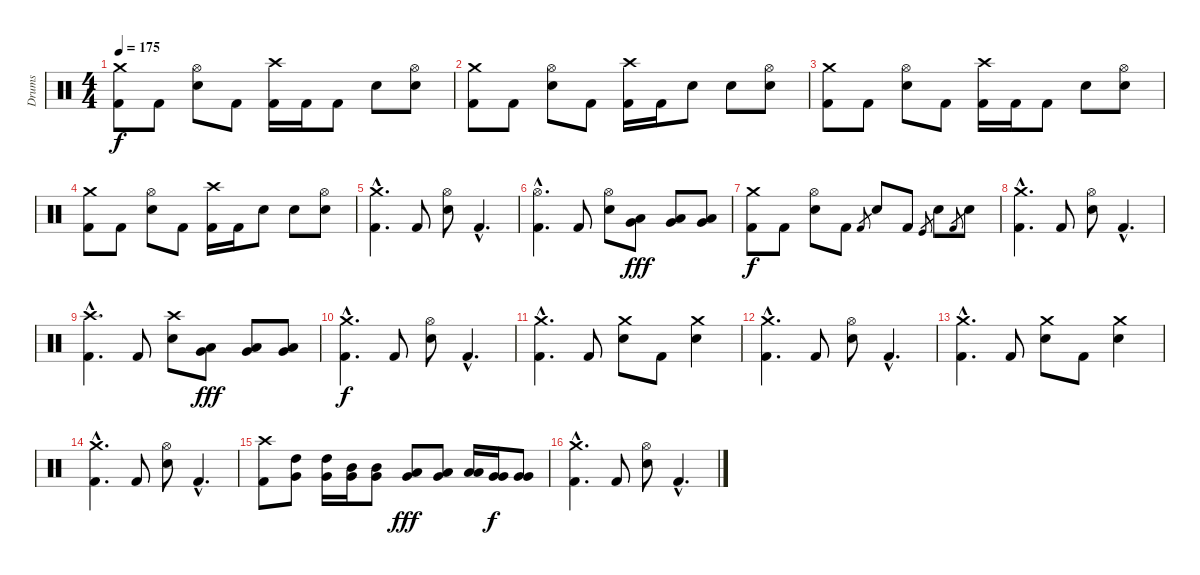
\track ("Drums" "Drums") {instrument percussion}
\staff {score}
\articulation defaults
\ts (4 4)
\tempo 175
\clef neutral
\ks c
("Kick (hit) 2" "Crash medium (hit)").8{dy f} "Kick (hit) 2".8 ("Electric Snare (hit)" "Hi-Hat (open)").8 "Kick (hit) 2".8 ("Kick (hit) 2" "Crash high (hit)").16 "Kick (hit) 2".16 "Kick (hit) 2".8 "Electric Snare (hit)".8 ("Electric Snare (hit)" "Hi-Hat (open)").8 |
("Kick (hit) 2" "Crash medium (hit)").8 "Kick (hit) 2".8 ("Electric Snare (hit)" "Hi-Hat (open)").8 "Kick (hit) 2".8 ("Kick (hit) 2" "Crash high (hit)").16 "Kick (hit) 2".16 "Electric Snare (hit)".8 "Snare (hit) 2".8 ("Snare (hit) 2" "Hi-Hat (open)").8 |
("Kick (hit) 2" "Crash medium (hit)").8 "Kick (hit) 2".8 ("Electric Snare (hit)" "Hi-Hat (open)").8 "Kick (hit) 2".8 ("Kick (hit) 2" "Crash high (hit)").16 "Kick (hit) 2".16 "Kick (hit) 2".8 "Electric Snare (hit)".8 ("Electric Snare (hit)" "Hi-Hat (open)").8 |
("Kick (hit) 2" "Crash medium (hit)").8 "Kick (hit) 2".8 ("Electric Snare (hit)" "Hi-Hat (open)").8 "Kick (hit) 2".8 ("Kick (hit) 2" "Crash high (hit)").16 "Kick (hit) 2".16 "Electric Snare (hit)".8 "Snare (hit) 2".8 ("Snare (hit) 2" "Hi-Hat (open)").8 |
("Kick (hit) 2"{hac} "Crash medium (hit)"{hac}).4{d} "Kick (hit) 2".8 ("Electric Snare (hit)" "Hi-Hat (open)").8 "Kick (hit) 2"{hac}.4{d} |
("Kick (hit) 2"{hac} "Hi-Hat (open)"{hac}).4{d} "Kick (hit) 2".8 ("Electric Snare (hit)" "Hi-Hat (open)").8 ("Low Tom (hit)" "Very Low Tom (hit)").8{dy fff} ("Low Tom (hit)" "Very Low Tom (hit)").8 ("Low Tom (hit)" "Very Low Tom (hit)").8 |
("Kick (hit) 2" "Crash medium (hit)").8{dy f} "Kick (hit) 2".8 ("Electric Snare (hit)" "Hi-Hat (open)").8 "Kick (hit) 2".8 "Kick (hit) 2".8{gr} "Electric Snare (hit)".8 "Kick (hit) 2".8 "Kick (hit)".8{gr} "Snare (hit) 2".8 "Kick (hit) 2".8{gr} "Electric Snare (hit)".8 |
("Kick (hit) 2"{hac} "Crash medium (hit)"{hac}).4{d} "Kick (hit) 2".8 ("Electric Snare (hit)" "Hi-Hat (open)").8 "Kick (hit) 2"{hac}.4{d} |
("Kick (hit) 2"{hac} "Crash high (hit)"{hac}).4{d} "Kick (hit) 2".8 ("Electric Snare (hit)" "Crash high (hit)").8 ("Low Tom (hit)" "Very Low Tom (hit)").8{dy fff} ("Low Tom (hit)" "Very Low Tom (hit)").8 ("Low Tom (hit)" "Very Low Tom (hit)").8 |
("Kick (hit) 2"{hac} "Crash medium (hit)"{hac}).4{d dy f} "Kick (hit) 2".8 ("Electric Snare (hit)" "Hi-Hat (open)").8 "Kick (hit) 2"{hac}.4{d} |
("Kick (hit) 2"{hac} "Crash medium (hit)"{hac}).4{d} "Kick (hit) 2".8 ("Electric Snare (hit)" "Crash medium (hit)").8 "Kick (hit) 2".8 ("Electric Snare (hit)" "Crash medium (hit)").4 |
("Kick (hit) 2"{hac} "Crash medium (hit)"{hac}).4{d} "Kick (hit) 2".8 ("Electric Snare (hit)" "Hi-Hat (open)").8 "Kick (hit) 2"{hac}.4{d} |
("Kick (hit) 2"{hac} "Crash medium (hit)"{hac}).4{d} "Kick (hit) 2".8 ("Electric Snare (hit)" "Crash medium (hit)").8 "Kick (hit) 2".8 ("Electric Snare (hit)" "Crash medium (hit)").4 |
("Kick (hit) 2"{hac} "Crash medium (hit)"{hac}).4{d} "Kick (hit) 2".8 ("Electric Snare (hit)" "Hi-Hat (open)").8 "Kick (hit) 2"{hac}.4{d} |
("Kick (hit) 2" "Crash high (hit)").8 ("High Tom (hit)" "Very Low Tom (hit)").8 ("High Tom (hit)" "Very Low Tom (hit)").16 ("Mid Tom (hit)" "Very Low Tom (hit)").16 ("Mid Tom (hit)" "Very Low Tom (hit)").8 ("Low Tom (hit)" "Very Low Tom (hit)").8{dy fff} ("Low Tom (hit)" "Very Low Tom (hit)").8 ("Low Tom (hit)" "Low Tom (hit)").16 ("Very Low Tom (hit)" "Very Low Tom (hit)").16{dy f} ("Very Low Tom (hit)" "Very Low Tom (hit)").8 |
("Kick (hit) 2"{hac} "Crash medium (hit)"{hac}).4{d} "Kick (hit) 2".8 ("Electric Snare (hit)" "Hi-Hat (open)").8 "Kick (hit) 2"{hac}.4{d}
